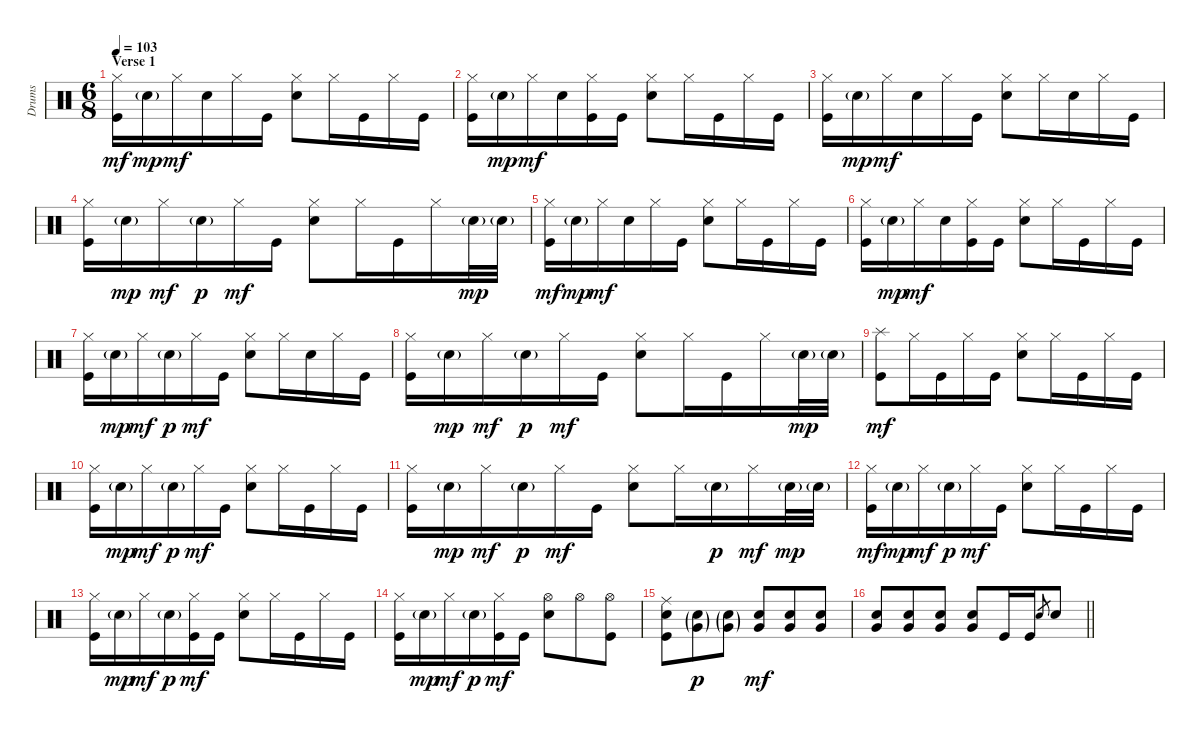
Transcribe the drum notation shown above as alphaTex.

\track ("Drums" "Drums") {instrument percussion}
\staff {score}
\articulation defaults
\ts (6 8)
\section ("" "Verse 1")
\tempo 103
\clef neutral
\ks c
("Hi-Hat (closed)" "Kick (hit)").16{dy mf} "Snare (hit) 2"{g}.16{dy mp} "Hi-Hat (closed)".16{dy mf} "Snare (hit) 2".16 "Hi-Hat (closed)".16 "Kick (hit)".16 ("Hi-Hat (closed)" "Snare (hit) 2").8 "Hi-Hat (closed)".16 "Kick (hit)".16 "Hi-Hat (closed)".16 "Kick (hit)".16 |
("Hi-Hat (closed)" "Kick (hit)").16 "Snare (hit) 2"{g}.16{dy mp} "Hi-Hat (closed)".16{dy mf} "Snare (hit) 2".16 ("Kick (hit)" "Hi-Hat (closed)").16 "Kick (hit)".16 ("Hi-Hat (closed)" "Snare (hit) 2").8 "Hi-Hat (closed)".16 "Kick (hit)".16 "Hi-Hat (closed)".16 "Kick (hit)".16 |
("Hi-Hat (closed)" "Kick (hit)").16 "Snare (hit) 2"{g}.16{dy mp} "Hi-Hat (closed)".16{dy mf} "Snare (hit) 2".16 "Hi-Hat (closed)".16 "Kick (hit)".16 ("Hi-Hat (closed)" "Snare (hit) 2").8 "Hi-Hat (closed)".16 "Snare (hit) 2".16 "Hi-Hat (closed)".16 "Kick (hit)".16 |
("Hi-Hat (closed)" "Kick (hit)").16 "Snare (hit) 2"{g}.16{dy mp} "Hi-Hat (closed)".16{dy mf} "Snare (hit) 2"{g}.16{dy p} "Hi-Hat (closed)".16{dy mf} "Kick (hit)".16 ("Hi-Hat (closed)" "Snare (hit) 2").8 "Hi-Hat (closed)".16 "Kick (hit)".16 "Hi-Hat (closed)".16 "Snare (hit) 2"{g}.32{dy mp} "Snare (hit) 2"{g}.32 |
("Hi-Hat (closed)" "Kick (hit)").16{dy mf} "Snare (hit) 2"{g}.16{dy mp} "Hi-Hat (closed)".16{dy mf} "Snare (hit) 2".16 "Hi-Hat (closed)".16 "Kick (hit)".16 ("Hi-Hat (closed)" "Snare (hit) 2").8 "Hi-Hat (closed)".16 "Kick (hit)".16 "Hi-Hat (closed)".16 "Kick (hit)".16 |
("Hi-Hat (closed)" "Kick (hit)").16 "Snare (hit) 2"{g}.16{dy mp} "Hi-Hat (closed)".16{dy mf} "Snare (hit) 2".16 ("Hi-Hat (closed)" "Kick (hit)").16 "Kick (hit)".16 ("Hi-Hat (closed)" "Snare (hit) 2").8 "Hi-Hat (closed)".16 "Kick (hit)".16 "Hi-Hat (closed)".16 "Kick (hit)".16 |
("Hi-Hat (closed)" "Kick (hit)").16 "Snare (hit) 2"{g}.16{dy mp} "Hi-Hat (closed)".16{dy mf} "Snare (hit) 2"{g}.16{dy p} "Hi-Hat (closed)".16{dy mf} "Kick (hit)".16 ("Hi-Hat (closed)" "Snare (hit) 2").8 "Hi-Hat (closed)".16 "Snare (hit) 2".16 "Hi-Hat (closed)".16 "Kick (hit)".16 |
("Hi-Hat (closed)" "Kick (hit)").16 "Snare (hit) 2"{g}.16{dy mp} "Hi-Hat (closed)".16{dy mf} "Snare (hit) 2"{g}.16{dy p} "Hi-Hat (closed)".16{dy mf} "Kick (hit)".16 ("Hi-Hat (closed)" "Snare (hit) 2").8 "Hi-Hat (closed)".16 "Kick (hit)".16 "Hi-Hat (closed)".16 "Snare (hit) 2"{g}.32{dy mp} "Snare (hit) 2"{g}.32 |
("Splash (hit)" "Kick (hit)").8{dy mf} "Hi-Hat (closed)".16 "Kick (hit)".16 "Hi-Hat (closed)".16 "Kick (hit)".16 ("Hi-Hat (closed)" "Snare (hit) 2").8 "Hi-Hat (closed)".16 "Kick (hit)".16 "Hi-Hat (closed)".16 "Kick (hit)".16 |
("Hi-Hat (closed)" "Kick (hit)").16 "Snare (hit) 2"{g}.16{dy mp} "Hi-Hat (closed)".16{dy mf} "Snare (hit) 2"{g}.16{dy p} "Hi-Hat (closed)".16{dy mf} "Kick (hit)".16 ("Hi-Hat (closed)" "Snare (hit) 2").8 "Hi-Hat (closed)".16 "Kick (hit)".16 "Hi-Hat (closed)".16 "Kick (hit)".16 |
("Hi-Hat (closed)" "Kick (hit)").16 "Snare (hit) 2"{g}.16{dy mp} "Hi-Hat (closed)".16{dy mf} "Snare (hit) 2"{g}.16{dy p} "Hi-Hat (closed)".16{dy mf} "Kick (hit)".16 ("Hi-Hat (closed)" "Snare (hit) 2").8 "Hi-Hat (closed)".16 "Snare (hit) 2"{g}.16{dy p} "Hi-Hat (closed)".16{dy mf} "Snare (hit) 2"{g}.32{dy mp} "Snare (hit) 2"{g}.32 |
("Hi-Hat (closed)" "Kick (hit)").16{dy mf} "Snare (hit) 2"{g}.16{dy mp} "Hi-Hat (closed)".16{dy mf} "Snare (hit) 2"{g}.16{dy p} "Hi-Hat (closed)".16{dy mf} "Kick (hit)".16 ("Hi-Hat (closed)" "Snare (hit) 2").8 "Hi-Hat (closed)".16 "Kick (hit)".16 "Hi-Hat (closed)".16 "Kick (hit)".16 |
("Hi-Hat (closed)" "Kick (hit)").16 "Snare (hit) 2"{g}.16{dy mp} "Hi-Hat (closed)".16{dy mf} "Snare (hit) 2"{g}.16{dy p} ("Hi-Hat (closed)" "Kick (hit)").16{dy mf} "Kick (hit)".16 ("Hi-Hat (closed)" "Snare (hit) 2").8 "Hi-Hat (closed)".16 "Kick (hit)".16 "Hi-Hat (closed)".16 "Kick (hit)".16 |
("Hi-Hat (closed)" "Kick (hit)").16 "Snare (hit) 2"{g}.16{dy mp} "Hi-Hat (closed)".16{dy mf} "Snare (hit) 2"{g}.16{dy p} ("Hi-Hat (closed)" "Kick (hit)").16{dy mf} "Kick (hit)".16 ("Hi-Hat (open)" "Snare (hit) 2").8 "Hi-Hat (open)".8 ("Hi-Hat (open)" "Kick (hit)").8 |
("Ride (middle)" "Snare (hit) 2" "Kick (hit)").8 ("Very Low Tom (hit)"{g} "Snare (hit) 2"{g}).8{dy p} ("Very Low Tom (hit)"{g} "Snare (hit) 2"{g}).8 ("Very Low Tom (hit)" "Snare (hit) 2").8{dy mf} ("Very Low Tom (hit)" "Snare (hit) 2").8 ("Very Low Tom (hit)" "Snare (hit) 2").8 |
\barLineRight lightlight
("Very Low Tom (hit)" "Snare (hit) 2").8 ("Very Low Tom (hit)" "Snare (hit) 2").8 ("Very Low Tom (hit)" "Snare (hit) 2").8 ("Very Low Tom (hit)" "Snare (hit) 2").8 "Kick (hit)".16 "Kick (hit)".16 "Snare (hit) 2".8{gr} "Snare (hit) 2".8
